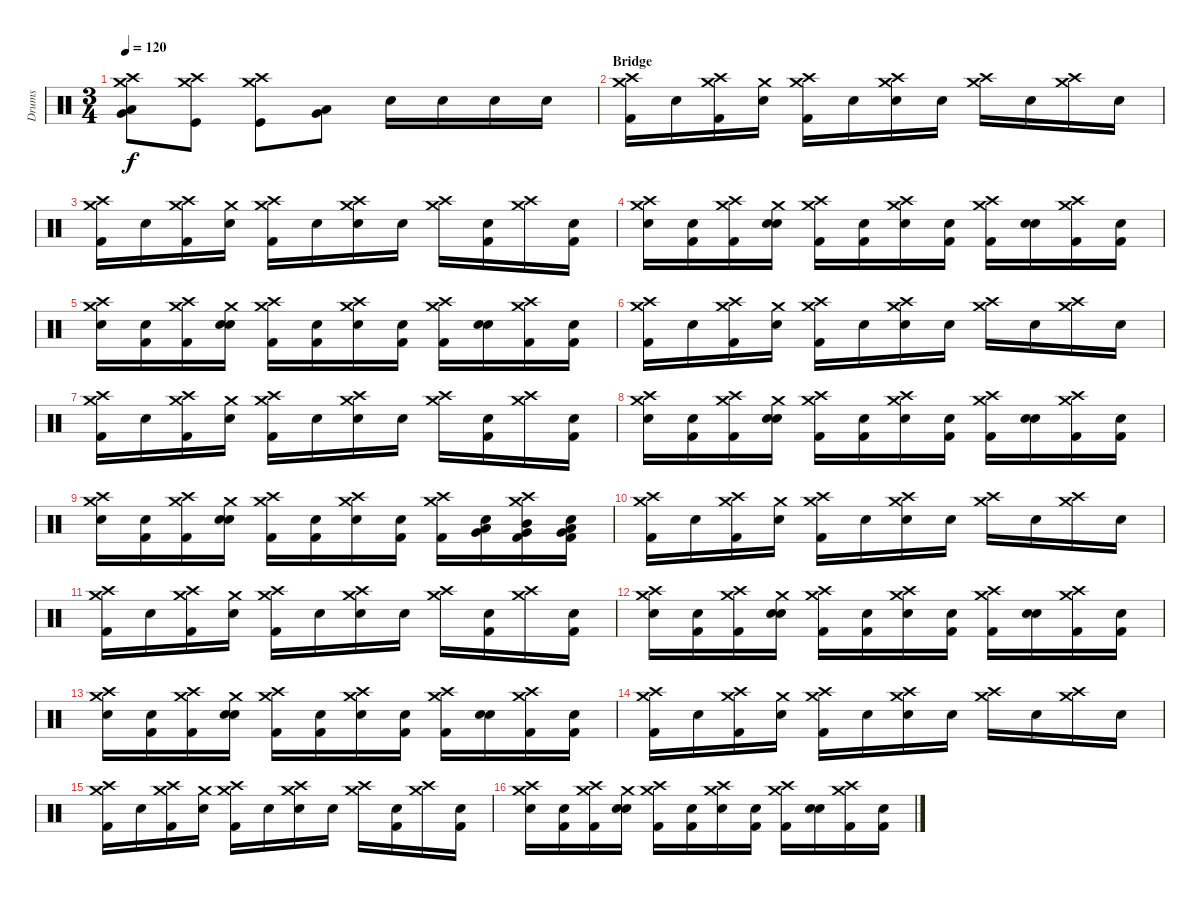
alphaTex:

\track ("Drums" "Drums") {instrument percussion}
\staff {score}
\articulation defaults
\ts (3 4)
\tempo 120
\clef neutral
\ks c
("Crash high (hit)" "Crash medium (hit)" "Low Tom (hit)" "Very Low Tom (hit)").8{dy f} ("Crash high (hit)" "Crash medium (hit)" "Kick (hit)").8 ("Crash high (hit)" "Crash medium (hit)" "Kick (hit)").8 ("Low Tom (hit)" "Very Low Tom (hit)").8 "Electric Snare (hit)".16 "Electric Snare (hit)".16 "Electric Snare (hit)".16 "Electric Snare (hit)".16 |
\section ("" "Bridge")
("Crash high (hit)" "Crash medium (hit)" "Kick (hit) 2").16 "Snare (hit)"{x}.16 ("Crash high (hit)" "Crash medium (hit)" "Kick (hit) 2").16 ("Snare (hit)"{x} "Crash medium (hit)"{x}).16 ("Crash high (hit)" "Crash medium (hit)" "Kick (hit) 2").16 "Snare (hit)"{x}.16 ("Crash high (hit)" "Crash medium (hit)" "Electric Snare (hit)").16 "Snare (hit)"{x}.16 ("Crash high (hit)" "Crash medium (hit)").16 "Snare (hit)"{x}.16 ("Crash high (hit)" "Crash medium (hit)").16 "Snare (hit)"{x}.16 |
("Crash high (hit)" "Crash medium (hit)" "Kick (hit) 2").16 "Snare (hit)"{x}.16 ("Crash high (hit)" "Crash medium (hit)" "Kick (hit) 2").16 ("Snare (hit)"{x} "Crash medium (hit)"{x}).16 ("Crash high (hit)" "Crash medium (hit)" "Kick (hit) 2").16 "Snare (hit)"{x}.16 ("Crash high (hit)" "Crash medium (hit)" "Electric Snare (hit)").16 "Snare (hit)"{x}.16 ("Crash high (hit)" "Crash medium (hit)").16 ("Snare (hit)"{x} "Kick (hit) 2").16 ("Crash high (hit)" "Crash medium (hit)").16 ("Snare (hit)"{x} "Kick (hit) 2").16 |
("Crash high (hit)" "Crash medium (hit)" "Electric Snare (hit)").16 ("Snare (hit)"{x} "Kick (hit) 2").16 ("Crash high (hit)" "Crash medium (hit)" "Kick (hit) 2").16 ("Snare (hit)"{x} "Crash medium (hit)"{x} "Electric Snare (hit)").16 ("Crash high (hit)" "Crash medium (hit)" "Kick (hit) 2").16 ("Snare (hit)"{x} "Kick (hit) 2").16 ("Crash high (hit)" "Crash medium (hit)" "Electric Snare (hit)").16 ("Snare (hit)"{x} "Kick (hit) 2").16 ("Crash high (hit)" "Crash medium (hit)" "Kick (hit) 2").16 ("Snare (hit)"{x} "Electric Snare (hit)").16 ("Crash high (hit)" "Crash medium (hit)" "Kick (hit) 2").16 ("Snare (hit)"{x} "Kick (hit) 2").16 |
("Crash high (hit)" "Crash medium (hit)" "Electric Snare (hit)").16 ("Snare (hit)"{x} "Kick (hit) 2").16 ("Crash high (hit)" "Crash medium (hit)" "Kick (hit) 2").16 ("Snare (hit)"{x} "Crash medium (hit)"{x} "Electric Snare (hit)").16 ("Crash high (hit)" "Crash medium (hit)" "Kick (hit) 2").16 ("Snare (hit)"{x} "Kick (hit) 2").16 ("Crash high (hit)" "Crash medium (hit)" "Electric Snare (hit)").16 ("Snare (hit)"{x} "Kick (hit) 2").16 ("Crash high (hit)" "Crash medium (hit)" "Kick (hit) 2").16 ("Snare (hit)"{x} "Electric Snare (hit)").16 ("Crash high (hit)" "Crash medium (hit)" "Kick (hit) 2").16 ("Snare (hit)"{x} "Kick (hit) 2").16 |
("Crash high (hit)" "Crash medium (hit)" "Kick (hit) 2").16 "Snare (hit)"{x}.16 ("Crash high (hit)" "Crash medium (hit)" "Kick (hit) 2").16 ("Snare (hit)"{x} "Crash medium (hit)"{x}).16 ("Crash high (hit)" "Crash medium (hit)" "Kick (hit) 2").16 "Snare (hit)"{x}.16 ("Crash high (hit)" "Crash medium (hit)" "Electric Snare (hit)").16 "Snare (hit)"{x}.16 ("Crash high (hit)" "Crash medium (hit)").16 "Snare (hit)"{x}.16 ("Crash high (hit)" "Crash medium (hit)").16 "Snare (hit)"{x}.16 |
("Crash high (hit)" "Crash medium (hit)" "Kick (hit) 2").16 "Snare (hit)"{x}.16 ("Crash high (hit)" "Crash medium (hit)" "Kick (hit) 2").16 ("Snare (hit)"{x} "Crash medium (hit)"{x}).16 ("Crash high (hit)" "Crash medium (hit)" "Kick (hit) 2").16 "Snare (hit)"{x}.16 ("Crash high (hit)" "Crash medium (hit)" "Electric Snare (hit)").16 "Snare (hit)"{x}.16 ("Crash high (hit)" "Crash medium (hit)").16 ("Snare (hit)"{x} "Kick (hit) 2").16 ("Crash high (hit)" "Crash medium (hit)").16 ("Snare (hit)"{x} "Kick (hit) 2").16 |
("Crash high (hit)" "Crash medium (hit)" "Electric Snare (hit)").16 ("Snare (hit)"{x} "Kick (hit) 2").16 ("Crash high (hit)" "Crash medium (hit)" "Kick (hit) 2").16 ("Snare (hit)"{x} "Crash medium (hit)"{x} "Electric Snare (hit)").16 ("Crash high (hit)" "Crash medium (hit)" "Kick (hit) 2").16 ("Snare (hit)"{x} "Kick (hit) 2").16 ("Crash high (hit)" "Crash medium (hit)" "Electric Snare (hit)").16 ("Snare (hit)"{x} "Kick (hit) 2").16 ("Crash high (hit)" "Crash medium (hit)" "Kick (hit) 2").16 ("Snare (hit)"{x} "Electric Snare (hit)").16 ("Crash high (hit)" "Crash medium (hit)" "Kick (hit) 2").16 ("Snare (hit)"{x} "Kick (hit) 2").16 |
("Crash high (hit)" "Crash medium (hit)" "Electric Snare (hit)").16 ("Snare (hit)"{x} "Kick (hit) 2").16 ("Crash high (hit)" "Crash medium (hit)" "Kick (hit) 2").16 ("Snare (hit)"{x} "Crash medium (hit)"{x} "Electric Snare (hit)").16 ("Crash high (hit)" "Crash medium (hit)" "Kick (hit) 2").16 ("Snare (hit)"{x} "Kick (hit) 2").16 ("Crash high (hit)" "Crash medium (hit)" "Electric Snare (hit)").16 ("Snare (hit)"{x} "Kick (hit) 2").16 ("Crash high (hit)" "Crash medium (hit)" "Kick (hit) 2").16 ("Snare (hit)"{x} "Low Tom (hit)" "Very Low Tom (hit)").16 ("Crash high (hit)" "Crash medium (hit)" "Very Low Tom (hit)" "Mid Tom (hit)" "Kick (hit) 2").16 ("Snare (hit)"{x} "Very Low Tom (hit)" "Low Floor Tom (hit)" "Kick (hit) 2").16 |
("Crash high (hit)" "Crash medium (hit)" "Kick (hit) 2").16 "Snare (hit)"{x}.16 ("Crash high (hit)" "Crash medium (hit)" "Kick (hit) 2").16 ("Snare (hit)"{x} "Crash medium (hit)"{x}).16 ("Crash high (hit)" "Crash medium (hit)" "Kick (hit) 2").16 "Snare (hit)"{x}.16 ("Crash high (hit)" "Crash medium (hit)" "Electric Snare (hit)").16 "Snare (hit)"{x}.16 ("Crash high (hit)" "Crash medium (hit)").16 "Snare (hit)"{x}.16 ("Crash high (hit)" "Crash medium (hit)").16 "Snare (hit)"{x}.16 |
("Crash high (hit)" "Crash medium (hit)" "Kick (hit) 2").16 "Snare (hit)"{x}.16 ("Crash high (hit)" "Crash medium (hit)" "Kick (hit) 2").16 ("Snare (hit)"{x} "Crash medium (hit)"{x}).16 ("Crash high (hit)" "Crash medium (hit)" "Kick (hit) 2").16 "Snare (hit)"{x}.16 ("Crash high (hit)" "Crash medium (hit)" "Electric Snare (hit)").16 "Snare (hit)"{x}.16 ("Crash high (hit)" "Crash medium (hit)").16 ("Snare (hit)"{x} "Kick (hit) 2").16 ("Crash high (hit)" "Crash medium (hit)").16 ("Snare (hit)"{x} "Kick (hit) 2").16 |
("Crash high (hit)" "Crash medium (hit)" "Electric Snare (hit)").16 ("Snare (hit)"{x} "Kick (hit) 2").16 ("Crash high (hit)" "Crash medium (hit)" "Kick (hit) 2").16 ("Snare (hit)"{x} "Crash medium (hit)"{x} "Electric Snare (hit)").16 ("Crash high (hit)" "Crash medium (hit)" "Kick (hit) 2").16 ("Snare (hit)"{x} "Kick (hit) 2").16 ("Crash high (hit)" "Crash medium (hit)" "Electric Snare (hit)").16 ("Snare (hit)"{x} "Kick (hit) 2").16 ("Crash high (hit)" "Crash medium (hit)" "Kick (hit) 2").16 ("Snare (hit)"{x} "Electric Snare (hit)").16 ("Crash high (hit)" "Crash medium (hit)" "Kick (hit) 2").16 ("Snare (hit)"{x} "Kick (hit) 2").16 |
("Crash high (hit)" "Crash medium (hit)" "Electric Snare (hit)").16 ("Snare (hit)"{x} "Kick (hit) 2").16 ("Crash high (hit)" "Crash medium (hit)" "Kick (hit) 2").16 ("Snare (hit)"{x} "Crash medium (hit)"{x} "Electric Snare (hit)").16 ("Crash high (hit)" "Crash medium (hit)" "Kick (hit) 2").16 ("Snare (hit)"{x} "Kick (hit) 2").16 ("Crash high (hit)" "Crash medium (hit)" "Electric Snare (hit)").16 ("Snare (hit)"{x} "Kick (hit) 2").16 ("Crash high (hit)" "Crash medium (hit)" "Kick (hit) 2").16 ("Snare (hit)"{x} "Electric Snare (hit)").16 ("Crash high (hit)" "Crash medium (hit)" "Kick (hit) 2").16 ("Snare (hit)"{x} "Kick (hit) 2").16 |
("Crash high (hit)" "Crash medium (hit)" "Kick (hit) 2").16 "Snare (hit)"{x}.16 ("Crash high (hit)" "Crash medium (hit)" "Kick (hit) 2").16 ("Snare (hit)"{x} "Crash medium (hit)"{x}).16 ("Crash high (hit)" "Crash medium (hit)" "Kick (hit) 2").16 "Snare (hit)"{x}.16 ("Crash high (hit)" "Crash medium (hit)" "Electric Snare (hit)").16 "Snare (hit)"{x}.16 ("Crash high (hit)" "Crash medium (hit)").16 "Snare (hit)"{x}.16 ("Crash high (hit)" "Crash medium (hit)").16 "Snare (hit)"{x}.16 |
("Crash high (hit)" "Crash medium (hit)" "Kick (hit) 2").16 "Snare (hit)"{x}.16 ("Crash high (hit)" "Crash medium (hit)" "Kick (hit) 2").16 ("Snare (hit)"{x} "Crash medium (hit)"{x}).16 ("Crash high (hit)" "Crash medium (hit)" "Kick (hit) 2").16 "Snare (hit)"{x}.16 ("Crash high (hit)" "Crash medium (hit)" "Electric Snare (hit)").16 "Snare (hit)"{x}.16 ("Crash high (hit)" "Crash medium (hit)").16 ("Snare (hit)"{x} "Kick (hit) 2").16 ("Crash high (hit)" "Crash medium (hit)").16 ("Snare (hit)"{x} "Kick (hit) 2").16 |
("Crash high (hit)" "Crash medium (hit)" "Electric Snare (hit)").16 ("Snare (hit)"{x} "Kick (hit) 2").16 ("Crash high (hit)" "Crash medium (hit)" "Kick (hit) 2").16 ("Snare (hit)"{x} "Crash medium (hit)"{x} "Electric Snare (hit)").16 ("Crash high (hit)" "Crash medium (hit)" "Kick (hit) 2").16 ("Snare (hit)"{x} "Kick (hit) 2").16 ("Crash high (hit)" "Crash medium (hit)" "Electric Snare (hit)").16 ("Snare (hit)"{x} "Kick (hit) 2").16 ("Crash high (hit)" "Crash medium (hit)" "Kick (hit) 2").16 ("Snare (hit)"{x} "Electric Snare (hit)").16 ("Crash high (hit)" "Crash medium (hit)" "Kick (hit) 2").16 ("Snare (hit)"{x} "Kick (hit) 2").16
